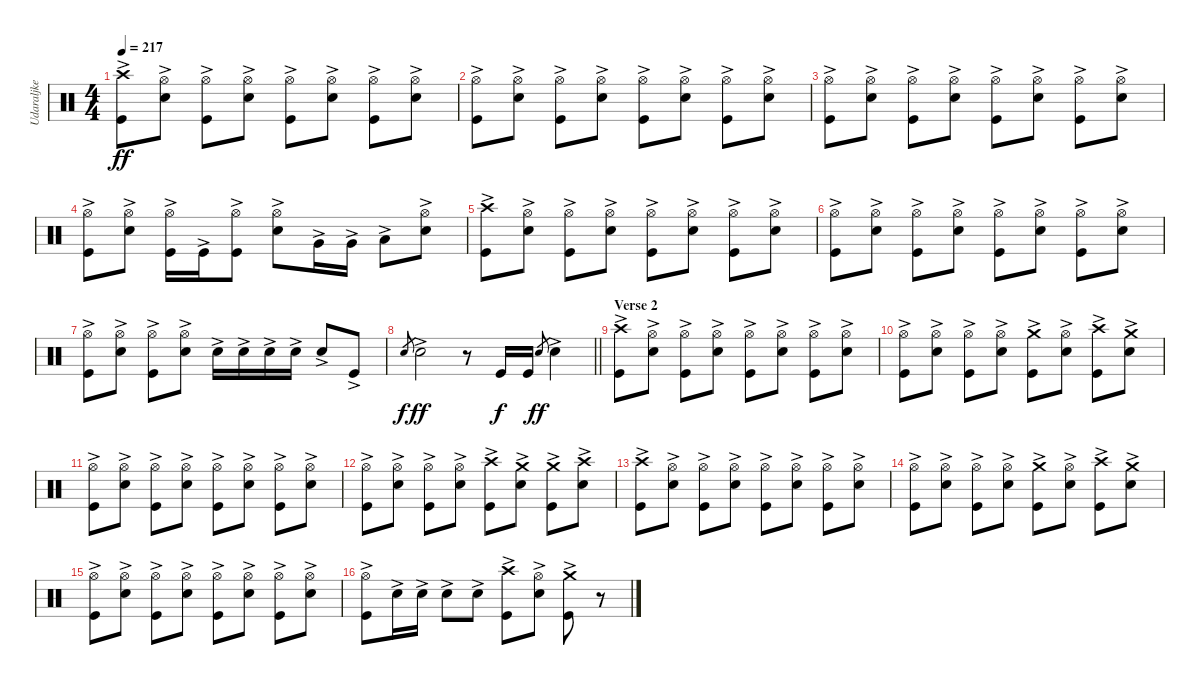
\track ("Udaraljke" "Udaraljke") {instrument percussion}
\staff {score}
\articulation defaults
\ts (4 4)
\section ("" "")
\tempo 217
\clef neutral
\ks c
("Kick (hit)"{ac} "Crash high (hit)"{ac}).8{dy ff} ("Snare (hit) 2"{ac} "Hi-Hat (open)").8 ("Kick (hit)"{ac} "Hi-Hat (open)").8 ("Snare (hit) 2"{ac} "Hi-Hat (open)").8 ("Kick (hit)"{ac} "Hi-Hat (open)").8 ("Snare (hit) 2"{ac} "Hi-Hat (open)").8 ("Kick (hit)"{ac} "Hi-Hat (open)").8 ("Snare (hit) 2"{ac} "Hi-Hat (open)").8 |
("Kick (hit)"{ac} "Hi-Hat (open)"{ac}).8 ("Snare (hit) 2"{ac} "Hi-Hat (open)").8 ("Kick (hit)"{ac} "Hi-Hat (open)").8 ("Snare (hit) 2"{ac} "Hi-Hat (open)").8 ("Kick (hit)"{ac} "Hi-Hat (open)").8 ("Snare (hit) 2"{ac} "Hi-Hat (open)").8 ("Kick (hit)"{ac} "Hi-Hat (open)").8 ("Snare (hit) 2"{ac} "Hi-Hat (open)").8 |
("Kick (hit)"{ac} "Hi-Hat (open)"{ac}).8 ("Snare (hit) 2"{ac} "Hi-Hat (open)").8 ("Kick (hit)"{ac} "Hi-Hat (open)").8 ("Snare (hit) 2"{ac} "Hi-Hat (open)").8 ("Kick (hit)"{ac} "Hi-Hat (open)").8 ("Snare (hit) 2"{ac} "Hi-Hat (open)").8 ("Kick (hit)"{ac} "Hi-Hat (open)").8 ("Snare (hit) 2"{ac} "Hi-Hat (open)").8 |
("Kick (hit)"{ac} "Hi-Hat (open)"{ac}).8 ("Snare (hit) 2"{ac} "Hi-Hat (open)").8 ("Kick (hit)"{ac} "Hi-Hat (open)").16 "Kick (hit)"{ac}.16 ("Kick (hit)"{ac} "Hi-Hat (open)").8 ("Snare (hit) 2"{ac} "Hi-Hat (open)").8 "Very Low Tom (hit)"{ac}.16 "Very Low Tom (hit)"{ac}.16 "Low Floor Tom (hit)"{ac}.8 ("Snare (hit) 2"{ac} "Hi-Hat (open)").8 |
("Kick (hit)"{ac} "Crash high (hit)"{ac}).8 ("Snare (hit) 2"{ac} "Hi-Hat (open)").8 ("Kick (hit)"{ac} "Hi-Hat (open)").8 ("Snare (hit) 2"{ac} "Hi-Hat (open)").8 ("Kick (hit)"{ac} "Hi-Hat (open)").8 ("Snare (hit) 2"{ac} "Hi-Hat (open)").8 ("Kick (hit)"{ac} "Hi-Hat (open)").8 ("Snare (hit) 2"{ac} "Hi-Hat (open)").8 |
("Kick (hit)"{ac} "Hi-Hat (open)"{ac}).8 ("Snare (hit) 2"{ac} "Hi-Hat (open)").8 ("Kick (hit)"{ac} "Hi-Hat (open)").8 ("Snare (hit) 2"{ac} "Hi-Hat (open)").8 ("Kick (hit)"{ac} "Hi-Hat (open)").8 ("Snare (hit) 2"{ac} "Hi-Hat (open)").8 ("Kick (hit)"{ac} "Hi-Hat (open)").8 ("Snare (hit) 2"{ac} "Hi-Hat (open)").8 |
("Kick (hit)"{ac} "Hi-Hat (open)"{ac}).8 ("Snare (hit) 2"{ac} "Hi-Hat (open)").8 ("Kick (hit)"{ac} "Hi-Hat (open)"{ac}).8 ("Snare (hit) 2"{ac} "Hi-Hat (open)").8 "Snare (hit) 2"{ac}.16 "Snare (hit) 2"{ac}.16 "Snare (hit) 2"{ac}.16 "Snare (hit) 2"{ac}.16 "Snare (hit) 2"{ac}.8 "Kick (hit)"{ac}.8 |
\barLineRight lightlight "Snare (hit) 2".8{gr dy f} "Snare (hit) 2"{ac}.2{dy ff}
r.8 "Kick (hit)".16{dy f} "Kick (hit)".16 "Snare (hit) 2".8{gr dy ff} "Snare (hit) 2"{ac}.4 |
\section ("" "Verse 2")
("Kick (hit)"{ac} "Crash high (hit)"{ac}).8 ("Snare (hit) 2"{ac} "Hi-Hat (open)").8 ("Kick (hit)"{ac} "Hi-Hat (open)").8 ("Snare (hit) 2"{ac} "Hi-Hat (open)").8 ("Kick (hit)"{ac} "Hi-Hat (open)").8 ("Snare (hit) 2"{ac} "Hi-Hat (open)").8 ("Kick (hit)"{ac} "Hi-Hat (open)").8 ("Snare (hit) 2"{ac} "Hi-Hat (open)").8 |
("Kick (hit)"{ac} "Hi-Hat (open)"{ac}).8 ("Snare (hit) 2"{ac} "Hi-Hat (open)").8 ("Kick (hit)"{ac} "Hi-Hat (open)").8 ("Snare (hit) 2"{ac} "Hi-Hat (open)").8 ("Kick (hit)"{ac} "Crash medium (hit)").8 ("Snare (hit) 2"{ac} "Hi-Hat (open)").8 ("Kick (hit)"{ac} "Crash high (hit)").8 ("Snare (hit) 2"{ac} "Crash medium (hit)").8 |
("Kick (hit)"{ac} "Hi-Hat (open)"{ac}).8 ("Snare (hit) 2"{ac} "Hi-Hat (open)").8 ("Kick (hit)"{ac} "Hi-Hat (open)").8 ("Snare (hit) 2"{ac} "Hi-Hat (open)").8 ("Kick (hit)"{ac} "Hi-Hat (open)").8 ("Snare (hit) 2"{ac} "Hi-Hat (open)").8 ("Kick (hit)"{ac} "Hi-Hat (open)").8 ("Snare (hit) 2"{ac} "Hi-Hat (open)").8 |
("Kick (hit)"{ac} "Hi-Hat (open)"{ac}).8 ("Snare (hit) 2"{ac} "Hi-Hat (open)").8 ("Kick (hit)"{ac} "Hi-Hat (open)").8 ("Snare (hit) 2"{ac} "Hi-Hat (open)").8 ("Kick (hit)"{ac} "Crash high (hit)").8 ("Snare (hit) 2"{ac} "Crash medium (hit)").8 ("Kick (hit)"{ac} "Crash medium (hit)").8 ("Snare (hit) 2"{ac} "Crash high (hit)").8 |
("Kick (hit)"{ac} "Crash high (hit)"{ac}).8 ("Snare (hit) 2"{ac} "Hi-Hat (open)").8 ("Kick (hit)"{ac} "Hi-Hat (open)").8 ("Snare (hit) 2"{ac} "Hi-Hat (open)").8 ("Kick (hit)"{ac} "Hi-Hat (open)").8 ("Snare (hit) 2"{ac} "Hi-Hat (open)").8 ("Kick (hit)"{ac} "Hi-Hat (open)").8 ("Snare (hit) 2"{ac} "Hi-Hat (open)").8 |
("Kick (hit)"{ac} "Hi-Hat (open)"{ac}).8 ("Snare (hit) 2"{ac} "Hi-Hat (open)").8 ("Kick (hit)"{ac} "Hi-Hat (open)").8 ("Snare (hit) 2"{ac} "Hi-Hat (open)").8 ("Kick (hit)"{ac} "Crash medium (hit)").8 ("Snare (hit) 2"{ac} "Hi-Hat (open)").8 ("Kick (hit)"{ac} "Crash high (hit)").8 ("Snare (hit) 2"{ac} "Crash medium (hit)").8 |
("Kick (hit)"{ac} "Hi-Hat (open)"{ac}).8 ("Snare (hit) 2"{ac} "Hi-Hat (open)").8 ("Kick (hit)"{ac} "Hi-Hat (open)").8 ("Snare (hit) 2"{ac} "Hi-Hat (open)").8 ("Kick (hit)"{ac} "Hi-Hat (open)").8 ("Snare (hit) 2"{ac} "Hi-Hat (open)").8 ("Kick (hit)"{ac} "Hi-Hat (open)").8 ("Snare (hit) 2"{ac} "Hi-Hat (open)").8 |
("Kick (hit)"{ac} "Hi-Hat (open)"{ac}).8 "Snare (hit) 2"{ac}.16 "Snare (hit) 2"{ac}.16 "Snare (hit) 2"{ac}.8 "Snare (hit) 2"{ac}.8 ("Kick (hit)"{ac} "Crash high (hit)").8 ("Snare (hit) 2"{ac} "Hi-Hat (open)").8 ("Kick (hit)"{ac} "Crash medium (hit)").8 r.8
